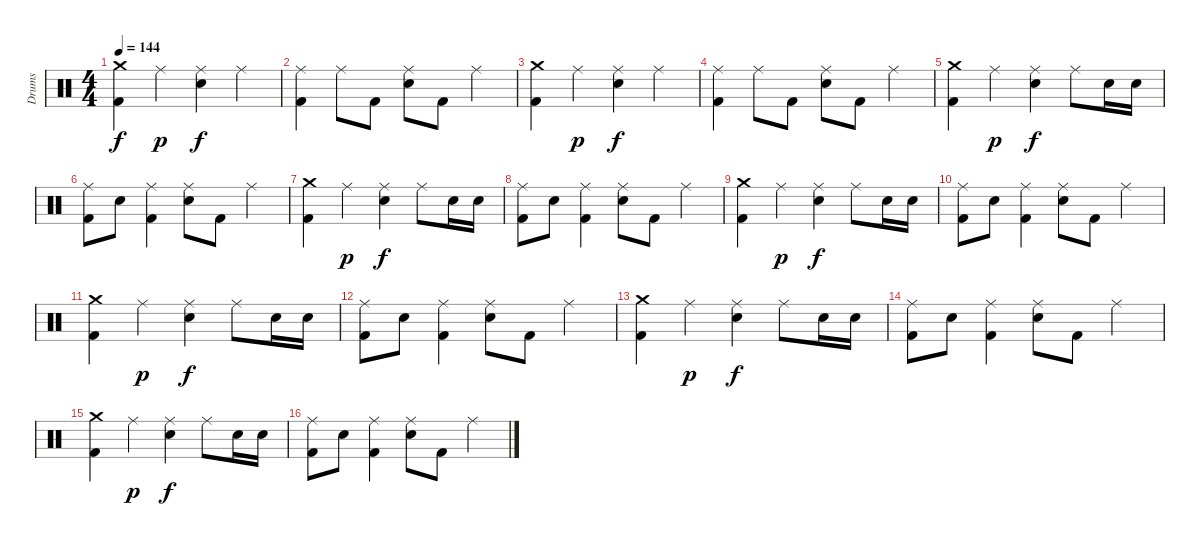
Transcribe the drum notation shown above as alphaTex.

\track ("Drums" "Drums") {instrument percussion}
\staff {score}
\articulation defaults
\ts (4 4)
\tempo 144
\clef neutral
\ks c
("Crash medium (hit)" "Kick (hit) 2").4{dy f} "Ride (middle)".4{dy p} ("Ride (middle)" "Snare (hit) 2").4{dy f} "Ride (middle)".4 |
("Ride (middle)" "Kick (hit) 2").4 "Ride (middle)".8 "Kick (hit) 2".8 ("Ride (middle)" "Snare (hit) 2").8 "Kick (hit) 2".8 "Ride (middle)".4 |
("Crash medium (hit)" "Kick (hit) 2").4 "Ride (middle)".4{dy p} ("Ride (middle)" "Snare (hit) 2").4{dy f} "Ride (middle)".4 |
("Ride (middle)" "Kick (hit) 2").4 "Ride (middle)".8 "Kick (hit) 2".8 ("Ride (middle)" "Snare (hit) 2").8 "Kick (hit) 2".8 "Ride (middle)".4 |
("Crash medium (hit)" "Kick (hit) 2").4 "Ride (middle)".4{dy p} ("Ride (middle)" "Snare (hit) 2").4{dy f} "Ride (middle)".8 "Snare (hit) 2".16 "Snare (hit) 2".16 |
("Ride (middle)" "Kick (hit) 2").8 "Snare (hit) 2".8 ("Ride (middle)" "Kick (hit) 2").4 ("Ride (middle)" "Snare (hit) 2").8 "Kick (hit) 2".8 "Ride (middle)".4 |
("Crash medium (hit)" "Kick (hit) 2").4 "Ride (middle)".4{dy p} ("Ride (middle)" "Snare (hit) 2").4{dy f} "Ride (middle)".8 "Snare (hit) 2".16 "Snare (hit) 2".16 |
("Ride (middle)" "Kick (hit) 2").8 "Snare (hit) 2".8 ("Ride (middle)" "Kick (hit) 2").4 ("Ride (middle)" "Snare (hit) 2").8 "Kick (hit) 2".8 "Ride (middle)".4 |
("Crash medium (hit)" "Kick (hit) 2").4 "Ride (middle)".4{dy p} ("Ride (middle)" "Snare (hit) 2").4{dy f} "Ride (middle)".8 "Snare (hit) 2".16 "Snare (hit) 2".16 |
("Ride (middle)" "Kick (hit) 2").8 "Snare (hit) 2".8 ("Ride (middle)" "Kick (hit) 2").4 ("Ride (middle)" "Snare (hit) 2").8 "Kick (hit) 2".8 "Ride (middle)".4 |
("Crash medium (hit)" "Kick (hit) 2").4 "Ride (middle)".4{dy p} ("Ride (middle)" "Snare (hit) 2").4{dy f} "Ride (middle)".8 "Snare (hit) 2".16 "Snare (hit) 2".16 |
("Ride (middle)" "Kick (hit) 2").8 "Snare (hit) 2".8 ("Ride (middle)" "Kick (hit) 2").4 ("Ride (middle)" "Snare (hit) 2").8 "Kick (hit) 2".8 "Ride (middle)".4 |
("Crash medium (hit)" "Kick (hit) 2").4 "Ride (middle)".4{dy p} ("Ride (middle)" "Snare (hit) 2").4{dy f} "Ride (middle)".8 "Snare (hit) 2".16 "Snare (hit) 2".16 |
("Ride (middle)" "Kick (hit) 2").8 "Snare (hit) 2".8 ("Ride (middle)" "Kick (hit) 2").4 ("Ride (middle)" "Snare (hit) 2").8 "Kick (hit) 2".8 "Ride (middle)".4 |
("Crash medium (hit)" "Kick (hit) 2").4 "Ride (middle)".4{dy p} ("Ride (middle)" "Snare (hit) 2").4{dy f} "Ride (middle)".8 "Snare (hit) 2".16 "Snare (hit) 2".16 |
("Ride (middle)" "Kick (hit) 2").8 "Snare (hit) 2".8 ("Ride (middle)" "Kick (hit) 2").4 ("Ride (middle)" "Snare (hit) 2").8 "Kick (hit) 2".8 "Ride (middle)".4
